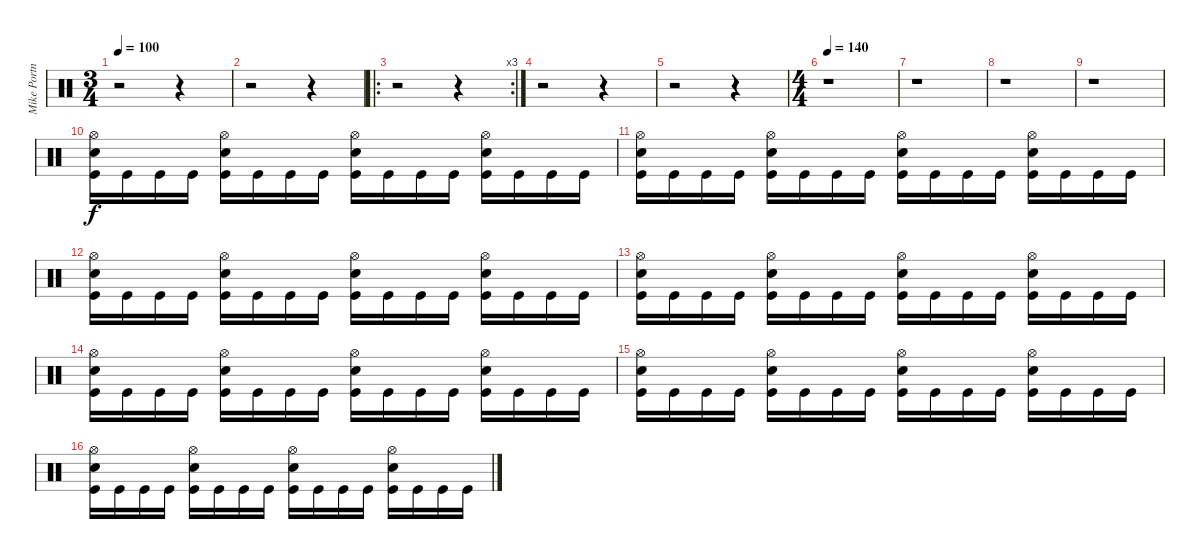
\track ("Mike Portnoy" "Mike Portn") {instrument percussion}
\staff {score}
\articulation defaults
\ts (3 4)
\tempo 100
\clef neutral
\ks c
r.2{dy f} r.4 |
r.2 r.4 |
\ro
\rc 3
r.2 r.4 |
r.2 r.4 |
r.2 r.4 |
\ts (4 4)
\tempo 140
r.1 |
r.1 |
r.1 |
r.1 |
("Hi-Hat (open)" "Kick (hit)" "Electric Snare (hit)").16 "Kick (hit)".16 "Kick (hit)".16 "Kick (hit)".16 ("Hi-Hat (open)" "Kick (hit)" "Electric Snare (hit)").16 "Kick (hit)".16 "Kick (hit)".16 "Kick (hit)".16 ("Hi-Hat (open)" "Kick (hit)" "Electric Snare (hit)").16 "Kick (hit)".16 "Kick (hit)".16 "Kick (hit)".16 ("Hi-Hat (open)" "Kick (hit)" "Electric Snare (hit)").16 "Kick (hit)".16 "Kick (hit)".16 "Kick (hit)".16 |
("Hi-Hat (open)" "Kick (hit)" "Electric Snare (hit)").16 "Kick (hit)".16 "Kick (hit)".16 "Kick (hit)".16 ("Hi-Hat (open)" "Kick (hit)" "Electric Snare (hit)").16 "Kick (hit)".16 "Kick (hit)".16 "Kick (hit)".16 ("Hi-Hat (open)" "Kick (hit)" "Electric Snare (hit)").16 "Kick (hit)".16 "Kick (hit)".16 "Kick (hit)".16 ("Hi-Hat (open)" "Kick (hit)" "Electric Snare (hit)").16 "Kick (hit)".16 "Kick (hit)".16 "Kick (hit)".16 |
("Hi-Hat (open)" "Kick (hit)" "Electric Snare (hit)").16 "Kick (hit)".16 "Kick (hit)".16 "Kick (hit)".16 ("Hi-Hat (open)" "Kick (hit)" "Electric Snare (hit)").16 "Kick (hit)".16 "Kick (hit)".16 "Kick (hit)".16 ("Hi-Hat (open)" "Kick (hit)" "Electric Snare (hit)").16 "Kick (hit)".16 "Kick (hit)".16 "Kick (hit)".16 ("Hi-Hat (open)" "Kick (hit)" "Electric Snare (hit)").16 "Kick (hit)".16 "Kick (hit)".16 "Kick (hit)".16 |
("Hi-Hat (open)" "Kick (hit)" "Electric Snare (hit)").16 "Kick (hit)".16 "Kick (hit)".16 "Kick (hit)".16 ("Hi-Hat (open)" "Kick (hit)" "Electric Snare (hit)").16 "Kick (hit)".16 "Kick (hit)".16 "Kick (hit)".16 ("Hi-Hat (open)" "Kick (hit)" "Electric Snare (hit)").16 "Kick (hit)".16 "Kick (hit)".16 "Kick (hit)".16 ("Hi-Hat (open)" "Kick (hit)" "Electric Snare (hit)").16 "Kick (hit)".16 "Kick (hit)".16 "Kick (hit)".16 |
("Hi-Hat (open)" "Kick (hit)" "Electric Snare (hit)").16 "Kick (hit)".16 "Kick (hit)".16 "Kick (hit)".16 ("Hi-Hat (open)" "Kick (hit)" "Electric Snare (hit)").16 "Kick (hit)".16 "Kick (hit)".16 "Kick (hit)".16 ("Hi-Hat (open)" "Kick (hit)" "Electric Snare (hit)").16 "Kick (hit)".16 "Kick (hit)".16 "Kick (hit)".16 ("Hi-Hat (open)" "Kick (hit)" "Electric Snare (hit)").16 "Kick (hit)".16 "Kick (hit)".16 "Kick (hit)".16 |
("Hi-Hat (open)" "Kick (hit)" "Electric Snare (hit)").16 "Kick (hit)".16 "Kick (hit)".16 "Kick (hit)".16 ("Hi-Hat (open)" "Kick (hit)" "Electric Snare (hit)").16 "Kick (hit)".16 "Kick (hit)".16 "Kick (hit)".16 ("Hi-Hat (open)" "Kick (hit)" "Electric Snare (hit)").16 "Kick (hit)".16 "Kick (hit)".16 "Kick (hit)".16 ("Hi-Hat (open)" "Kick (hit)" "Electric Snare (hit)").16 "Kick (hit)".16 "Kick (hit)".16 "Kick (hit)".16 |
("Hi-Hat (open)" "Kick (hit)" "Electric Snare (hit)").16 "Kick (hit)".16 "Kick (hit)".16 "Kick (hit)".16 ("Hi-Hat (open)" "Kick (hit)" "Electric Snare (hit)").16 "Kick (hit)".16 "Kick (hit)".16 "Kick (hit)".16 ("Hi-Hat (open)" "Kick (hit)" "Electric Snare (hit)").16 "Kick (hit)".16 "Kick (hit)".16 "Kick (hit)".16 ("Hi-Hat (open)" "Kick (hit)" "Electric Snare (hit)").16 "Kick (hit)".16 "Kick (hit)".16 "Kick (hit)".16
